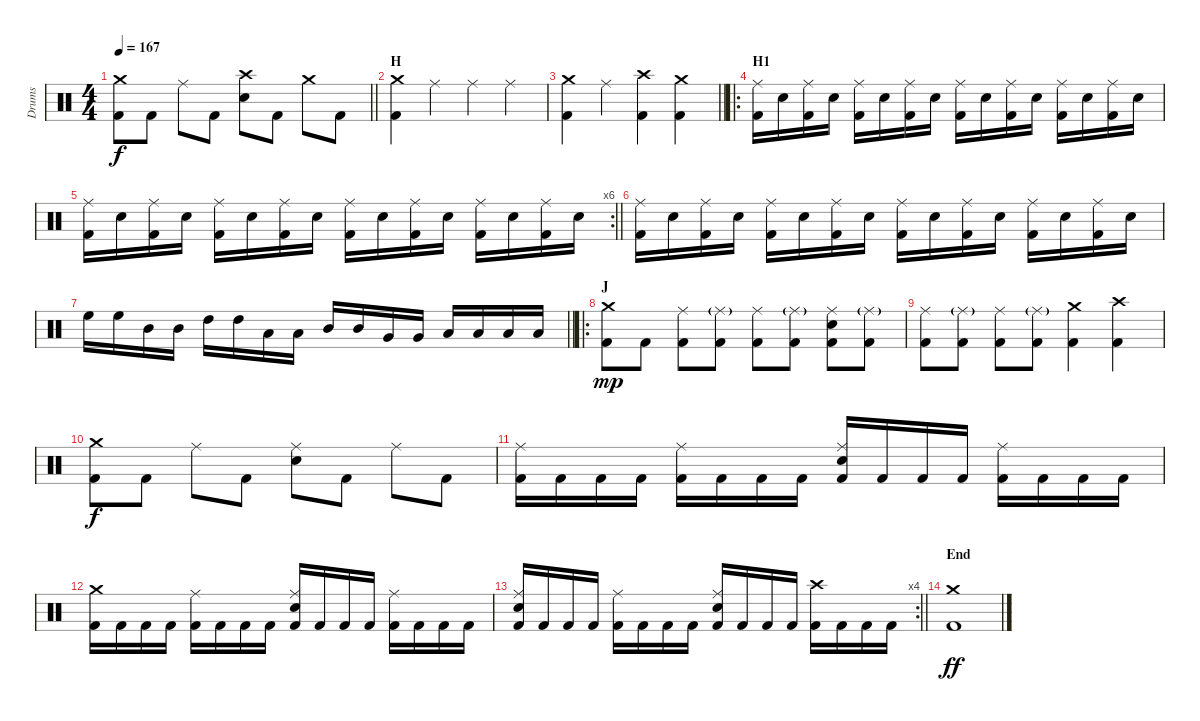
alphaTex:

\track ("Drums" "Drums") {instrument percussion}
\staff {score}
\articulation defaults
\ts (4 4)
\tempo 167
\clef neutral
\barLineRight lightlight
\ks c
("Crash medium (hit)" "Kick (hit) 2").8{dy f} "Kick (hit) 2".8 "Ride (middle)".8 "Kick (hit) 2".8 ("Crash high (hit)" "Electric Snare (hit)").8 "Kick (hit) 2".8 "Crash medium (hit)".8 "Kick (hit) 2".8 |
\section ("" "H")
("Crash medium (hit)" "Kick (hit) 2").4 "Ride (middle)".4 "Ride (middle)".4 "Ride (middle)".4 |
\barLineRight lightlight
("Crash medium (hit)" "Kick (hit) 2").4 "Ride (middle)".4 ("Crash high (hit)" "Kick (hit) 2").4 ("Crash medium (hit)" "Kick (hit) 2").4 |
\ro
\section ("" "H1")
("Ride (middle)" "Kick (hit) 2").16 "Electric Snare (hit)".16 ("Ride (middle)" "Kick (hit) 2").16 "Electric Snare (hit)".16 ("Ride (middle)" "Kick (hit) 2").16 "Electric Snare (hit)".16 ("Ride (middle)" "Kick (hit) 2").16 "Electric Snare (hit)".16 ("Ride (middle)" "Kick (hit) 2").16 "Electric Snare (hit)".16 ("Ride (middle)" "Kick (hit) 2").16 "Electric Snare (hit)".16 ("Ride (middle)" "Kick (hit) 2").16 "Electric Snare (hit)".16 ("Ride (middle)" "Kick (hit) 2").16 "Electric Snare (hit)".16 |
\rc 6
\barLineRight lightlight
("Ride (middle)" "Kick (hit) 2").16 "Electric Snare (hit)".16 ("Ride (middle)" "Kick (hit) 2").16 "Electric Snare (hit)".16 ("Ride (middle)" "Kick (hit) 2").16 "Electric Snare (hit)".16 ("Ride (middle)" "Kick (hit) 2").16 "Electric Snare (hit)".16 ("Ride (middle)" "Kick (hit) 2").16 "Electric Snare (hit)".16 ("Ride (middle)" "Kick (hit) 2").16 "Electric Snare (hit)".16 ("Ride (middle)" "Kick (hit) 2").16 "Electric Snare (hit)".16 ("Ride (middle)" "Kick (hit) 2").16 "Electric Snare (hit)".16 |
\section ("" "")
("Ride (middle)" "Kick (hit) 2").16 "Electric Snare (hit)".16 ("Ride (middle)" "Kick (hit) 2").16 "Electric Snare (hit)".16 ("Ride (middle)" "Kick (hit) 2").16 "Electric Snare (hit)".16 ("Ride (middle)" "Kick (hit) 2").16 "Electric Snare (hit)".16 ("Ride (middle)" "Kick (hit) 2").16 "Electric Snare (hit)".16 ("Ride (middle)" "Kick (hit) 2").16 "Electric Snare (hit)".16 ("Ride (middle)" "Kick (hit) 2").16 "Electric Snare (hit)".16 ("Ride (middle)" "Kick (hit) 2").16 "Electric Snare (hit)".16 |
\barLineRight lightlight "High Floor Tom (hit)".16 "High Floor Tom (hit)".16 "Mid Tom (hit)".16 "Mid Tom (hit)".16 "High Tom (hit)".16 "High Tom (hit)".16 "Low Tom (hit)".16 "Low Tom (hit)".16 "Mid Tom (hit)".16 "Mid Tom (hit)".16 "Very Low Tom (hit)".16 "Very Low Tom (hit)".16 "Low Tom (hit)".16 "Low Tom (hit)".16 "Low Floor Tom (hit)".16 "Low Floor Tom (hit)".16
|
\ro
\section ("" "J")
("Crash medium (hit)" "Kick (hit) 2").8{dy mp} "Kick (hit) 2".8 ("Ride (middle)" "Kick (hit) 2").8 ("Ride (middle)"{g} "Kick (hit) 2").8 ("Ride (middle)" "Kick (hit) 2").8 ("Ride (middle)"{g} "Kick (hit) 2").8 ("Ride (middle)" "Electric Snare (hit)" "Kick (hit) 2").8 ("Ride (middle)"{g} "Kick (hit) 2").8 |
("Ride (middle)" "Kick (hit) 2").8 ("Ride (middle)"{g} "Kick (hit) 2").8 ("Ride (middle)" "Kick (hit) 2").8 ("Ride (middle)"{g} "Kick (hit) 2").8 ("Crash medium (hit)" "Kick (hit) 2").4 ("Crash high (hit)" "Kick (hit) 2").4 |
("Crash medium (hit)" "Kick (hit) 2").8{dy f} "Kick (hit) 2".8 "Ride (middle)".8 "Kick (hit) 2".8 ("Ride (middle)" "Electric Snare (hit)").8 "Kick (hit) 2".8 "Ride (middle)".8 "Kick (hit) 2".8 |
("Ride (middle)" "Kick (hit) 2").16 "Kick (hit) 2".16 "Kick (hit) 2".16 "Kick (hit) 2".16 ("Ride (middle)" "Kick (hit) 2").16 "Kick (hit) 2".16 "Kick (hit) 2".16 "Kick (hit) 2".16 ("Ride (middle)" "Electric Snare (hit)" "Kick (hit) 2").16 "Kick (hit) 2".16 "Kick (hit) 2".16 "Kick (hit) 2".16 ("Ride (middle)" "Kick (hit) 2").16 "Kick (hit) 2".16 "Kick (hit) 2".16 "Kick (hit) 2".16 |
("Crash medium (hit)" "Kick (hit) 2").16 "Kick (hit) 2".16 "Kick (hit) 2".16 "Kick (hit) 2".16 ("Ride (middle)" "Kick (hit) 2").16 "Kick (hit) 2".16 "Kick (hit) 2".16 "Kick (hit) 2".16 ("Ride (middle)" "Electric Snare (hit)" "Kick (hit) 2").16 "Kick (hit) 2".16 "Kick (hit) 2".16 "Kick (hit) 2".16 ("Ride (middle)" "Kick (hit) 2").16 "Kick (hit) 2".16 "Kick (hit) 2".16 "Kick (hit) 2".16 |
\rc 4
\barLineRight lightlight
("Ride (middle)" "Electric Snare (hit)" "Kick (hit) 2").16 "Kick (hit) 2".16 "Kick (hit) 2".16 "Kick (hit) 2".16 ("Ride (middle)" "Kick (hit) 2").16 "Kick (hit) 2".16 "Kick (hit) 2".16 "Kick (hit) 2".16 ("Ride (middle)" "Electric Snare (hit)" "Kick (hit) 2").16 "Kick (hit) 2".16 "Kick (hit) 2".16 "Kick (hit) 2".16 ("Crash high (hit)" "Kick (hit) 2").16 "Kick (hit) 2".16 "Kick (hit) 2".16 "Kick (hit) 2".16 |
\section ("" "End")
("Crash medium (hit)" "Kick (hit) 2").1{dy ff}
